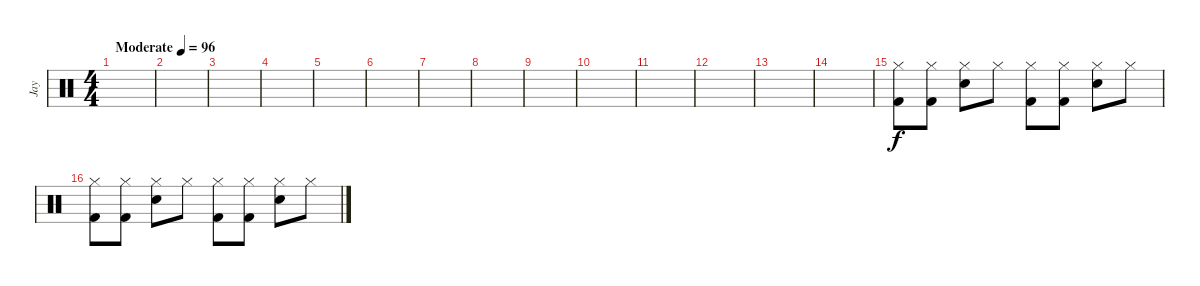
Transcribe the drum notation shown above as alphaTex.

\track ("Jay" "Jay") {instrument percussion}
\staff {score}
\articulation defaults
\ts (4 4)
\tempo (96 "Moderate")
\clef neutral
\ks c
|
|
|
|
|
|
|
|
|
|
|
|
|
|
("Hi-Hat (closed)" "Kick (hit) 2").8 ("Hi-Hat (closed)" "Kick (hit) 2").8 ("Hi-Hat (closed)" "Electric Snare (hit)").8 "Hi-Hat (closed)".8 ("Hi-Hat (closed)" "Kick (hit) 2").8 ("Hi-Hat (closed)" "Kick (hit) 2").8 ("Hi-Hat (closed)" "Electric Snare (hit)").8 "Hi-Hat (closed)".8 |
("Hi-Hat (closed)" "Kick (hit) 2").8 ("Hi-Hat (closed)" "Kick (hit) 2").8 ("Hi-Hat (closed)" "Electric Snare (hit)").8 "Hi-Hat (closed)".8 ("Hi-Hat (closed)" "Kick (hit) 2").8 ("Hi-Hat (closed)" "Kick (hit) 2").8 ("Hi-Hat (closed)" "Electric Snare (hit)").8 "Hi-Hat (closed)".8
